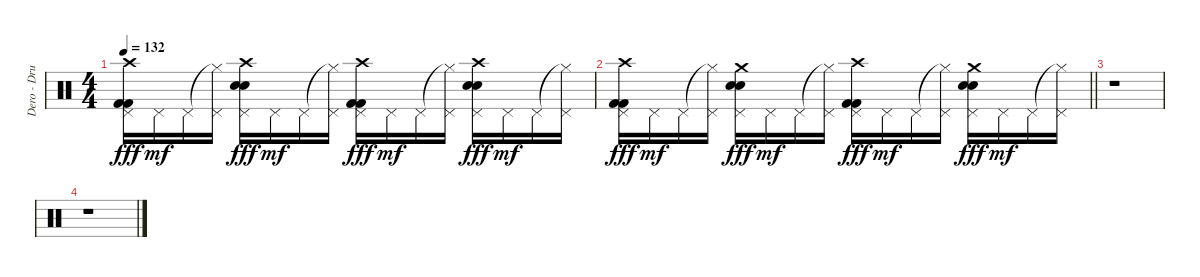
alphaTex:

\track ("Dero - Drums" "Dero - Dru") {instrument percussion}
\staff {score}
\articulation defaults
\ts (4 4)
\tempo 132
\clef neutral
\ks c
("Crash high (hit)" "Pedal Hi-Hat (hit)" "Kick (hit) 2" "Kick (hit) 2").16{dy fff} "Pedal Hi-Hat (hit)".16{dy mf} "Pedal Hi-Hat (hit)".16 ("Hi-Hat (closed)"{t} "Pedal Hi-Hat (hit)").16 ("Crash high (hit)" "Pedal Hi-Hat (hit)" "Electric Snare (hit)" "Electric Snare (hit)").16{dy fff} "Pedal Hi-Hat (hit)".16{dy mf} "Pedal Hi-Hat (hit)".16 ("Hi-Hat (closed)"{t} "Pedal Hi-Hat (hit)").16 ("Crash high (hit)" "Pedal Hi-Hat (hit)" "Kick (hit) 2" "Kick (hit) 2").16{dy fff} "Pedal Hi-Hat (hit)".16{dy mf} "Pedal Hi-Hat (hit)".16 ("Hi-Hat (closed)"{t} "Pedal Hi-Hat (hit)").16 ("Crash high (hit)" "Pedal Hi-Hat (hit)" "Electric Snare (hit)" "Electric Snare (hit)").16{dy fff} "Pedal Hi-Hat (hit)".16{dy mf} "Pedal Hi-Hat (hit)".16 ("Hi-Hat (closed)"{t} "Pedal Hi-Hat (hit)").16 |
\barLineRight lightlight
("Crash high (hit)" "Pedal Hi-Hat (hit)" "Kick (hit) 2" "Kick (hit) 2").16{dy fff} "Pedal Hi-Hat (hit)".16{dy mf} "Pedal Hi-Hat (hit)".16 ("Hi-Hat (closed)"{t} "Pedal Hi-Hat (hit)").16 ("Crash medium (hit)" "Pedal Hi-Hat (hit)" "Electric Snare (hit)" "Electric Snare (hit)").16{dy fff} "Pedal Hi-Hat (hit)".16{dy mf} "Pedal Hi-Hat (hit)".16 ("Hi-Hat (closed)"{t} "Pedal Hi-Hat (hit)").16 ("Crash high (hit)" "Pedal Hi-Hat (hit)" "Kick (hit) 2" "Kick (hit) 2").16{dy fff} "Pedal Hi-Hat (hit)".16{dy mf} "Pedal Hi-Hat (hit)".16 ("Hi-Hat (closed)"{t} "Pedal Hi-Hat (hit)").16 ("Crash medium (hit)" "Pedal Hi-Hat (hit)" "Electric Snare (hit)" "Electric Snare (hit)").16{dy fff} "Pedal Hi-Hat (hit)".16{dy mf} "Pedal Hi-Hat (hit)".16 ("Hi-Hat (closed)"{t} "Pedal Hi-Hat (hit)").16 |
r.1 |
r.1
